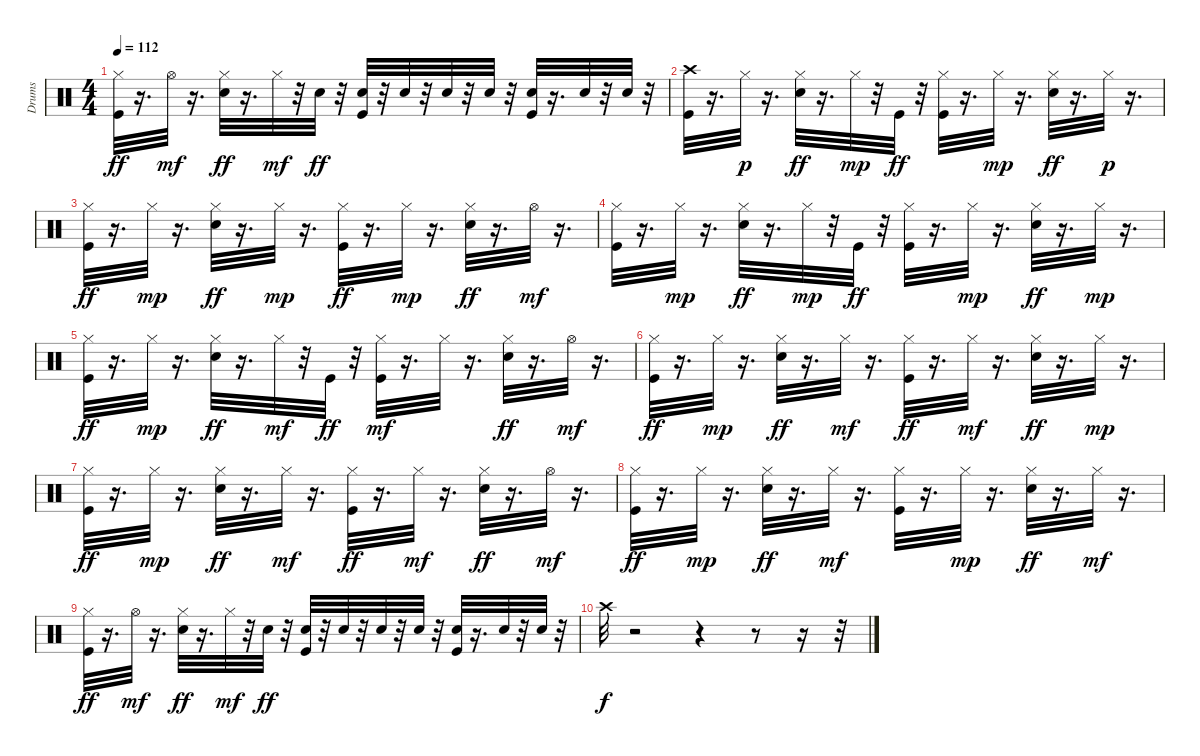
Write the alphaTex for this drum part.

\track ("Drums" "Drums") {instrument percussion}
\staff {score}
\articulation defaults
\ts (4 4)
\tempo 112
\clef neutral
\ks c
("Hi-Hat (closed)" "Kick (hit)").32{dy ff} r.16{d} "Hi-Hat (open)".32{dy mf} r.16{d} ("Hi-Hat (closed)" "Electric Snare (hit)").32{dy ff} r.16{d} "Hi-Hat (closed)".32{dy mf} r.32 "Electric Snare (hit)".32{dy ff} r.32 ("Kick (hit)" "Electric Snare (hit)").32 r.32 "Electric Snare (hit)".32 r.32 "Electric Snare (hit)".32 r.32 "Electric Snare (hit)".32 r.32 ("Kick (hit)" "Electric Snare (hit)").32 r.16{d} "Electric Snare (hit)".32 r.32 "Electric Snare (hit)".32 r.32 |
("Kick (hit)" "Crash high (hit)").32 r.16{d} "Hi-Hat (closed)".32{dy p} r.16{d} ("Hi-Hat (closed)" "Electric Snare (hit)").32{dy ff} r.16{d} "Hi-Hat (closed)".32{dy mp} r.32 "Kick (hit)".32{dy ff} r.32 ("Kick (hit)" "Hi-Hat (closed)").32 r.16{d} "Hi-Hat (closed)".32{dy mp} r.16{d} ("Hi-Hat (closed)" "Electric Snare (hit)").32{dy ff} r.16{d} "Hi-Hat (closed)".32{dy p} r.16{d} |
("Hi-Hat (closed)" "Kick (hit)").32{dy ff} r.16{d} "Hi-Hat (closed)".32{dy mp} r.16{d} ("Hi-Hat (closed)" "Electric Snare (hit)").32{dy ff} r.16{d} "Hi-Hat (closed)".32{dy mp} r.16{d} ("Hi-Hat (closed)" "Kick (hit)").32{dy ff} r.16{d} "Hi-Hat (closed)".32{dy mp} r.16{d} ("Hi-Hat (closed)" "Electric Snare (hit)").32{dy ff} r.16{d} "Hi-Hat (open)".32{dy mf} r.16{d} |
("Kick (hit)" "Hi-Hat (closed)").32 r.16{d} "Hi-Hat (closed)".32{dy mp} r.16{d} ("Electric Snare (hit)" "Hi-Hat (closed)").32{dy ff} r.16{d} "Hi-Hat (closed)".32{dy mp} r.32 "Kick (hit)".32{dy ff} r.32 ("Hi-Hat (closed)" "Kick (hit)").32 r.16{d} "Hi-Hat (closed)".32{dy mp} r.16{d} ("Electric Snare (hit)" "Hi-Hat (closed)").32{dy ff} r.16{d} "Hi-Hat (closed)".32{dy mp} r.16{d} |
("Hi-Hat (closed)" "Kick (hit)").32{dy ff} r.16{d} "Hi-Hat (closed)".32{dy mp} r.16{d} ("Hi-Hat (closed)" "Electric Snare (hit)").32{dy ff} r.16{d} "Hi-Hat (closed)".32{dy mf} r.32 "Kick (hit)".32{dy ff} r.32 ("Kick (hit)" "Hi-Hat (closed)").32{dy mf} r.16{d} "Hi-Hat (closed)".32 r.16{d} ("Electric Snare (hit)" "Hi-Hat (closed)").32{dy ff} r.16{d} "Hi-Hat (open)".32{dy mf} r.16{d} |
("Hi-Hat (closed)" "Kick (hit)").32{dy ff} r.16{d} "Hi-Hat (closed)".32{dy mp} r.16{d} ("Hi-Hat (closed)" "Electric Snare (hit)").32{dy ff} r.16{d} "Hi-Hat (closed)".32{dy mf} r.16{d} ("Hi-Hat (closed)" "Kick (hit)").32{dy ff} r.16{d} "Hi-Hat (closed)".32{dy mf} r.16{d} ("Hi-Hat (closed)" "Electric Snare (hit)").32{dy ff} r.16{d} "Hi-Hat (closed)".32{dy mp} r.16{d} |
("Hi-Hat (closed)" "Kick (hit)").32{dy ff} r.16{d} "Hi-Hat (closed)".32{dy mp} r.16{d} ("Hi-Hat (closed)" "Electric Snare (hit)").32{dy ff} r.16{d} "Hi-Hat (closed)".32{dy mf} r.16{d} ("Hi-Hat (closed)" "Kick (hit)").32{dy ff} r.16{d} "Hi-Hat (closed)".32{dy mf} r.16{d} ("Hi-Hat (closed)" "Electric Snare (hit)").32{dy ff} r.16{d} "Hi-Hat (open)".32{dy mf} r.16{d} |
("Hi-Hat (closed)" "Kick (hit)").32{dy ff} r.16{d} "Hi-Hat (closed)".32{dy mp} r.16{d} ("Electric Snare (hit)" "Hi-Hat (closed)").32{dy ff} r.16{d} "Hi-Hat (closed)".32{dy mf} r.16{d} ("Kick (hit)" "Hi-Hat (closed)").32 r.16{d} "Hi-Hat (closed)".32{dy mp} r.16{d} ("Hi-Hat (closed)" "Electric Snare (hit)").32{dy ff} r.16{d} "Hi-Hat (closed)".32{dy mf} r.16{d} |
("Hi-Hat (closed)" "Kick (hit)").32{dy ff} r.16{d} "Hi-Hat (open)".32{dy mf} r.16{d} ("Hi-Hat (closed)" "Electric Snare (hit)").32{dy ff} r.16{d} "Hi-Hat (closed)".32{dy mf} r.32 "Electric Snare (hit)".32{dy ff} r.32 ("Kick (hit)" "Electric Snare (hit)").32 r.32 "Electric Snare (hit)".32 r.32 "Electric Snare (hit)".32 r.32 "Electric Snare (hit)".32 r.32 ("Kick (hit)" "Electric Snare (hit)").32 r.16{d} "Electric Snare (hit)".32 r.32 "Electric Snare (hit)".32 r.32 |
"Crash high (hit)".32{dy f} r.2 r.4 r.8 r.16 r.32
